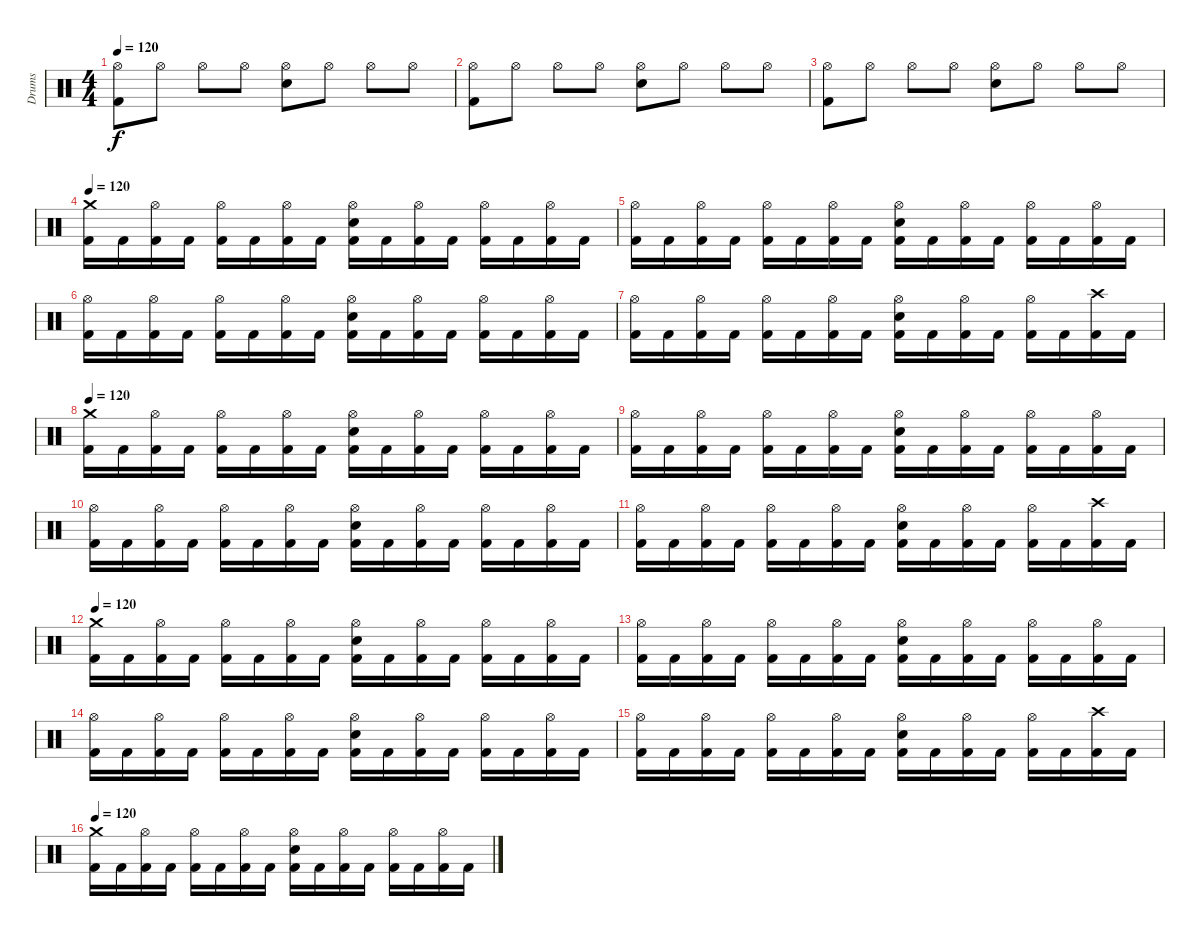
\track ("Drums" "Drums") {instrument percussion}
\staff {score}
\articulation defaults
\ts (4 4)
\tempo 120
\clef neutral
\ks c
("Hi-Hat (open)" "Kick (hit) 2").8{dy f} "Hi-Hat (open)".8 "Hi-Hat (open)".8 "Hi-Hat (open)".8 ("Hi-Hat (open)" "Electric Snare (hit)").8 "Hi-Hat (open)".8 "Hi-Hat (open)".8 "Hi-Hat (open)".8 |
("Hi-Hat (open)" "Kick (hit) 2").8 "Hi-Hat (open)".8 "Hi-Hat (open)".8 "Hi-Hat (open)".8 ("Hi-Hat (open)" "Electric Snare (hit)").8 "Hi-Hat (open)".8 "Hi-Hat (open)".8 "Hi-Hat (open)".8 |
("Hi-Hat (open)" "Kick (hit) 2").8 "Hi-Hat (open)".8 "Hi-Hat (open)".8 "Hi-Hat (open)".8 ("Hi-Hat (open)" "Electric Snare (hit)").8 "Hi-Hat (open)".8 "Hi-Hat (open)".8 "Hi-Hat (open)".8 |
\tempo 120
("Crash medium (hit)" "Kick (hit) 2").16 "Kick (hit) 2".16 ("Hi-Hat (open)" "Kick (hit) 2").16 "Kick (hit) 2".16 ("Hi-Hat (open)" "Kick (hit) 2").16 "Kick (hit) 2".16 ("Hi-Hat (open)" "Kick (hit) 2").16 "Kick (hit) 2".16 ("Hi-Hat (open)" "Electric Snare (hit)" "Kick (hit) 2").16 "Kick (hit) 2".16 ("Hi-Hat (open)" "Kick (hit) 2").16 "Kick (hit) 2".16 ("Hi-Hat (open)" "Kick (hit) 2").16 "Kick (hit) 2".16 ("Hi-Hat (open)" "Kick (hit) 2").16 "Kick (hit) 2".16 |
("Hi-Hat (open)" "Kick (hit) 2").16 "Kick (hit) 2".16 ("Hi-Hat (open)" "Kick (hit) 2").16 "Kick (hit) 2".16 ("Hi-Hat (open)" "Kick (hit) 2").16 "Kick (hit) 2".16 ("Hi-Hat (open)" "Kick (hit) 2").16 "Kick (hit) 2".16 ("Hi-Hat (open)" "Electric Snare (hit)" "Kick (hit) 2").16 "Kick (hit) 2".16 ("Hi-Hat (open)" "Kick (hit) 2").16 "Kick (hit) 2".16 ("Hi-Hat (open)" "Kick (hit) 2").16 "Kick (hit) 2".16 ("Hi-Hat (open)" "Kick (hit) 2").16 "Kick (hit) 2".16 |
("Hi-Hat (open)" "Kick (hit) 2").16 "Kick (hit) 2".16 ("Hi-Hat (open)" "Kick (hit) 2").16 "Kick (hit) 2".16 ("Hi-Hat (open)" "Kick (hit) 2").16 "Kick (hit) 2".16 ("Hi-Hat (open)" "Kick (hit) 2").16 "Kick (hit) 2".16 ("Hi-Hat (open)" "Electric Snare (hit)" "Kick (hit) 2").16 "Kick (hit) 2".16 ("Hi-Hat (open)" "Kick (hit) 2").16 "Kick (hit) 2".16 ("Hi-Hat (open)" "Kick (hit) 2").16 "Kick (hit) 2".16 ("Hi-Hat (open)" "Kick (hit) 2").16 "Kick (hit) 2".16 |
("Hi-Hat (open)" "Kick (hit) 2").16 "Kick (hit) 2".16 ("Hi-Hat (open)" "Kick (hit) 2").16 "Kick (hit) 2".16 ("Hi-Hat (open)" "Kick (hit) 2").16 "Kick (hit) 2".16 ("Hi-Hat (open)" "Kick (hit) 2").16 "Kick (hit) 2".16 ("Hi-Hat (open)" "Electric Snare (hit)" "Kick (hit) 2").16 "Kick (hit) 2".16 ("Hi-Hat (open)" "Kick (hit) 2").16 "Kick (hit) 2".16 ("Hi-Hat (open)" "Kick (hit) 2").16 "Kick (hit) 2".16 ("Crash high (hit)" "Kick (hit) 2").16 "Kick (hit) 2".16 |
\tempo 120
("Crash medium (hit)" "Kick (hit) 2").16 "Kick (hit) 2".16 ("Hi-Hat (open)" "Kick (hit) 2").16 "Kick (hit) 2".16 ("Hi-Hat (open)" "Kick (hit) 2").16 "Kick (hit) 2".16 ("Hi-Hat (open)" "Kick (hit) 2").16 "Kick (hit) 2".16 ("Hi-Hat (open)" "Electric Snare (hit)" "Kick (hit) 2").16 "Kick (hit) 2".16 ("Hi-Hat (open)" "Kick (hit) 2").16 "Kick (hit) 2".16 ("Hi-Hat (open)" "Kick (hit) 2").16 "Kick (hit) 2".16 ("Hi-Hat (open)" "Kick (hit) 2").16 "Kick (hit) 2".16 |
("Hi-Hat (open)" "Kick (hit) 2").16 "Kick (hit) 2".16 ("Hi-Hat (open)" "Kick (hit) 2").16 "Kick (hit) 2".16 ("Hi-Hat (open)" "Kick (hit) 2").16 "Kick (hit) 2".16 ("Hi-Hat (open)" "Kick (hit) 2").16 "Kick (hit) 2".16 ("Hi-Hat (open)" "Electric Snare (hit)" "Kick (hit) 2").16 "Kick (hit) 2".16 ("Hi-Hat (open)" "Kick (hit) 2").16 "Kick (hit) 2".16 ("Hi-Hat (open)" "Kick (hit) 2").16 "Kick (hit) 2".16 ("Hi-Hat (open)" "Kick (hit) 2").16 "Kick (hit) 2".16 |
("Hi-Hat (open)" "Kick (hit) 2").16 "Kick (hit) 2".16 ("Hi-Hat (open)" "Kick (hit) 2").16 "Kick (hit) 2".16 ("Hi-Hat (open)" "Kick (hit) 2").16 "Kick (hit) 2".16 ("Hi-Hat (open)" "Kick (hit) 2").16 "Kick (hit) 2".16 ("Hi-Hat (open)" "Electric Snare (hit)" "Kick (hit) 2").16 "Kick (hit) 2".16 ("Hi-Hat (open)" "Kick (hit) 2").16 "Kick (hit) 2".16 ("Hi-Hat (open)" "Kick (hit) 2").16 "Kick (hit) 2".16 ("Hi-Hat (open)" "Kick (hit) 2").16 "Kick (hit) 2".16 |
("Hi-Hat (open)" "Kick (hit) 2").16 "Kick (hit) 2".16 ("Hi-Hat (open)" "Kick (hit) 2").16 "Kick (hit) 2".16 ("Hi-Hat (open)" "Kick (hit) 2").16 "Kick (hit) 2".16 ("Hi-Hat (open)" "Kick (hit) 2").16 "Kick (hit) 2".16 ("Hi-Hat (open)" "Electric Snare (hit)" "Kick (hit) 2").16 "Kick (hit) 2".16 ("Hi-Hat (open)" "Kick (hit) 2").16 "Kick (hit) 2".16 ("Hi-Hat (open)" "Kick (hit) 2").16 "Kick (hit) 2".16 ("Crash high (hit)" "Kick (hit) 2").16 "Kick (hit) 2".16 |
\tempo 120
("Crash medium (hit)" "Kick (hit) 2").16 "Kick (hit) 2".16 ("Hi-Hat (open)" "Kick (hit) 2").16 "Kick (hit) 2".16 ("Hi-Hat (open)" "Kick (hit) 2").16 "Kick (hit) 2".16 ("Hi-Hat (open)" "Kick (hit) 2").16 "Kick (hit) 2".16 ("Hi-Hat (open)" "Electric Snare (hit)" "Kick (hit) 2").16 "Kick (hit) 2".16 ("Hi-Hat (open)" "Kick (hit) 2").16 "Kick (hit) 2".16 ("Hi-Hat (open)" "Kick (hit) 2").16 "Kick (hit) 2".16 ("Hi-Hat (open)" "Kick (hit) 2").16 "Kick (hit) 2".16 |
("Hi-Hat (open)" "Kick (hit) 2").16 "Kick (hit) 2".16 ("Hi-Hat (open)" "Kick (hit) 2").16 "Kick (hit) 2".16 ("Hi-Hat (open)" "Kick (hit) 2").16 "Kick (hit) 2".16 ("Hi-Hat (open)" "Kick (hit) 2").16 "Kick (hit) 2".16 ("Hi-Hat (open)" "Electric Snare (hit)" "Kick (hit) 2").16 "Kick (hit) 2".16 ("Hi-Hat (open)" "Kick (hit) 2").16 "Kick (hit) 2".16 ("Hi-Hat (open)" "Kick (hit) 2").16 "Kick (hit) 2".16 ("Hi-Hat (open)" "Kick (hit) 2").16 "Kick (hit) 2".16 |
("Hi-Hat (open)" "Kick (hit) 2").16 "Kick (hit) 2".16 ("Hi-Hat (open)" "Kick (hit) 2").16 "Kick (hit) 2".16 ("Hi-Hat (open)" "Kick (hit) 2").16 "Kick (hit) 2".16 ("Hi-Hat (open)" "Kick (hit) 2").16 "Kick (hit) 2".16 ("Hi-Hat (open)" "Electric Snare (hit)" "Kick (hit) 2").16 "Kick (hit) 2".16 ("Hi-Hat (open)" "Kick (hit) 2").16 "Kick (hit) 2".16 ("Hi-Hat (open)" "Kick (hit) 2").16 "Kick (hit) 2".16 ("Hi-Hat (open)" "Kick (hit) 2").16 "Kick (hit) 2".16 |
("Hi-Hat (open)" "Kick (hit) 2").16 "Kick (hit) 2".16 ("Hi-Hat (open)" "Kick (hit) 2").16 "Kick (hit) 2".16 ("Hi-Hat (open)" "Kick (hit) 2").16 "Kick (hit) 2".16 ("Hi-Hat (open)" "Kick (hit) 2").16 "Kick (hit) 2".16 ("Hi-Hat (open)" "Electric Snare (hit)" "Kick (hit) 2").16 "Kick (hit) 2".16 ("Hi-Hat (open)" "Kick (hit) 2").16 "Kick (hit) 2".16 ("Hi-Hat (open)" "Kick (hit) 2").16 "Kick (hit) 2".16 ("Crash high (hit)" "Kick (hit) 2").16 "Kick (hit) 2".16 |
\tempo 120
("Crash medium (hit)" "Kick (hit) 2").16 "Kick (hit) 2".16 ("Hi-Hat (open)" "Kick (hit) 2").16 "Kick (hit) 2".16 ("Hi-Hat (open)" "Kick (hit) 2").16 "Kick (hit) 2".16 ("Hi-Hat (open)" "Kick (hit) 2").16 "Kick (hit) 2".16 ("Hi-Hat (open)" "Electric Snare (hit)" "Kick (hit) 2").16 "Kick (hit) 2".16 ("Hi-Hat (open)" "Kick (hit) 2").16 "Kick (hit) 2".16 ("Hi-Hat (open)" "Kick (hit) 2").16 "Kick (hit) 2".16 ("Hi-Hat (open)" "Kick (hit) 2").16 "Kick (hit) 2".16
